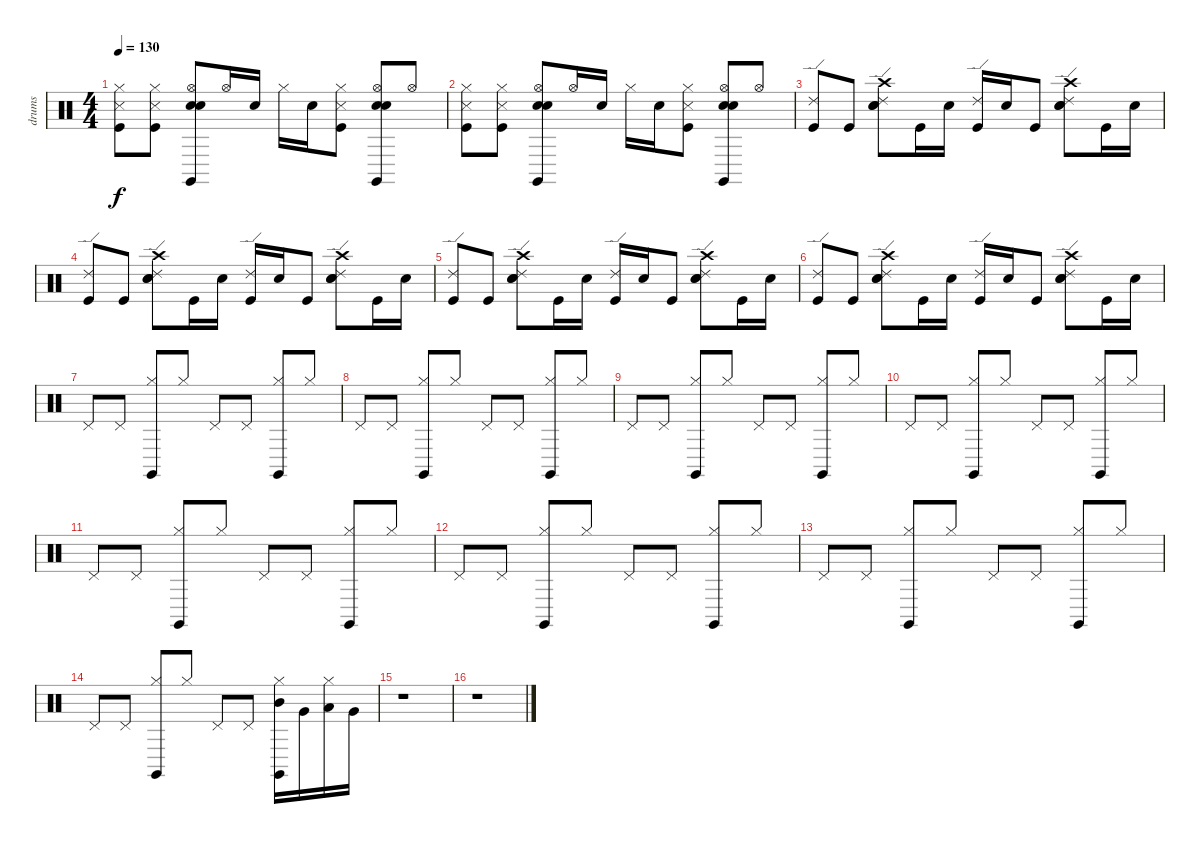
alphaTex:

\track ("drums" "drums") {instrument percussion}
\staff {score}
\articulation defaults
\ts (4 4)
\tempo 130
\clef neutral
\ks c
("Metronome (hit)" "Kick (hit)" "Hi-Hat (closed)").8{dy f} ("Hi-Hat (closed)" "Kick (hit)" "Metronome (hit)").8 ("Hi-Hat (open)" "Electric Snare (hit)" "Snare (hit) 2" "Claves (hit)").8 "Hi-Hat (open)".16 "Snare (hit) 2".16 "Hi-Hat (closed)".16 "Snare (hit) 2".16 ("Hi-Hat (closed)" "Metronome (hit)" "Kick (hit)").8 ("Hi-Hat (open)" "Snare (hit) 2" "Electric Snare (hit)" "Claves (hit)").8 "Hi-Hat (open)".8 |
("Metronome (hit)" "Kick (hit)" "Hi-Hat (closed)").8 ("Hi-Hat (closed)" "Kick (hit)" "Metronome (hit)").8 ("Hi-Hat (open)" "Electric Snare (hit)" "Snare (hit) 2" "Claves (hit)").8 "Hi-Hat (open)".16 "Snare (hit) 2".16 "Hi-Hat (closed)".16 "Snare (hit) 2".16 ("Hi-Hat (closed)" "Metronome (hit)" "Kick (hit)").8 ("Hi-Hat (open)" "Snare (hit) 2" "Electric Snare (hit)" "Claves (hit)").8 "Hi-Hat (open)".8 |
("Kick (hit)" "Ride (edge) 2").8 "Kick (hit)".8 ("Electric Snare (hit)" "Snare (hit) 2" "Crash high (hit)" "Ride (edge) 2").8 "Kick (hit)".16 "Snare (hit) 2".16 ("Kick (hit)" "Ride (edge) 2").16 "Snare (hit) 2".16 "Kick (hit)".8 ("Snare (hit) 2" "Electric Snare (hit)" "Crash high (hit)" "Ride (edge) 2").8 "Kick (hit)".16 "Snare (hit) 2".16 |
("Ride (edge) 2" "Kick (hit)").8 "Kick (hit)".8 ("Electric Snare (hit)" "Snare (hit) 2" "Crash high (hit)" "Ride (edge) 2").8 "Kick (hit)".16 "Snare (hit) 2".16 ("Kick (hit)" "Ride (edge) 2").16 "Snare (hit) 2".16 "Kick (hit)".8 ("Snare (hit) 2" "Electric Snare (hit)" "Crash high (hit)" "Ride (edge) 2").8 "Kick (hit)".16 "Snare (hit) 2".16 |
("Ride (edge) 2" "Kick (hit)").8 "Kick (hit)".8 ("Electric Snare (hit)" "Snare (hit) 2" "Crash high (hit)" "Ride (edge) 2").8 "Kick (hit)".16 "Snare (hit) 2".16 ("Kick (hit)" "Ride (edge) 2").16 "Snare (hit) 2".16 "Kick (hit)".8 ("Snare (hit) 2" "Electric Snare (hit)" "Crash high (hit)" "Ride (edge) 2").8 "Kick (hit)".16 "Snare (hit) 2".16 |
("Ride (edge) 2" "Kick (hit)").8 "Kick (hit)".8 ("Electric Snare (hit)" "Snare (hit) 2" "Crash high (hit)" "Ride (edge) 2").8 "Kick (hit)".16 "Snare (hit) 2".16 ("Kick (hit)" "Ride (edge) 2").16 "Snare (hit) 2".16 "Kick (hit)".8 ("Snare (hit) 2" "Electric Snare (hit)" "Crash high (hit)" "Ride (edge) 2").8 "Kick (hit)".16 "Snare (hit) 2".16 |
"Pedal Hi-Hat (hit)".8 "Pedal Hi-Hat (hit)".8 ("Hi-Hat (closed)" "Claves (hit)").8 "Hi-Hat (closed)".8 "Pedal Hi-Hat (hit)".8 "Pedal Hi-Hat (hit)".8 ("Hi-Hat (closed)" "Claves (hit)").8 "Hi-Hat (closed)".8 |
"Pedal Hi-Hat (hit)".8 "Pedal Hi-Hat (hit)".8 ("Hi-Hat (closed)" "Claves (hit)").8 "Hi-Hat (closed)".8 "Pedal Hi-Hat (hit)".8 "Pedal Hi-Hat (hit)".8 ("Hi-Hat (closed)" "Claves (hit)").8 "Hi-Hat (closed)".8 |
"Pedal Hi-Hat (hit)".8 "Pedal Hi-Hat (hit)".8 ("Hi-Hat (closed)" "Claves (hit)").8 "Hi-Hat (closed)".8 "Pedal Hi-Hat (hit)".8 "Pedal Hi-Hat (hit)".8 ("Hi-Hat (closed)" "Claves (hit)").8 "Hi-Hat (closed)".8 |
"Pedal Hi-Hat (hit)".8 "Pedal Hi-Hat (hit)".8 ("Hi-Hat (closed)" "Claves (hit)").8 "Hi-Hat (closed)".8 "Pedal Hi-Hat (hit)".8 "Pedal Hi-Hat (hit)".8 ("Hi-Hat (closed)" "Claves (hit)").8 "Hi-Hat (closed)".8 |
"Pedal Hi-Hat (hit)".8 "Pedal Hi-Hat (hit)".8 ("Hi-Hat (closed)" "Claves (hit)").8 "Hi-Hat (closed)".8 "Pedal Hi-Hat (hit)".8 "Pedal Hi-Hat (hit)".8 ("Hi-Hat (closed)" "Claves (hit)").8 "Hi-Hat (closed)".8 |
"Pedal Hi-Hat (hit)".8 "Pedal Hi-Hat (hit)".8 ("Hi-Hat (closed)" "Claves (hit)").8 "Hi-Hat (closed)".8 "Pedal Hi-Hat (hit)".8 "Pedal Hi-Hat (hit)".8 ("Hi-Hat (closed)" "Claves (hit)").8 "Hi-Hat (closed)".8 |
"Pedal Hi-Hat (hit)".8 "Pedal Hi-Hat (hit)".8 ("Hi-Hat (closed)" "Claves (hit)").8 "Hi-Hat (closed)".8 "Pedal Hi-Hat (hit)".8 "Pedal Hi-Hat (hit)".8 ("Hi-Hat (closed)" "Claves (hit)").8 "Hi-Hat (closed)".8 |
"Pedal Hi-Hat (hit)".8 "Pedal Hi-Hat (hit)".8 ("Hi-Hat (closed)" "Claves (hit)").8 "Hi-Hat (closed)".8 "Pedal Hi-Hat (hit)".8 "Pedal Hi-Hat (hit)".8 ("Hi-Hat (closed)" "Claves (hit)" "Mid Tom (hit)").16 "Very Low Tom (hit)".16 ("Hi-Hat (closed)" "Low Floor Tom (hit)").16 "Very Low Tom (hit)".16 |
r.1 |
r.1
